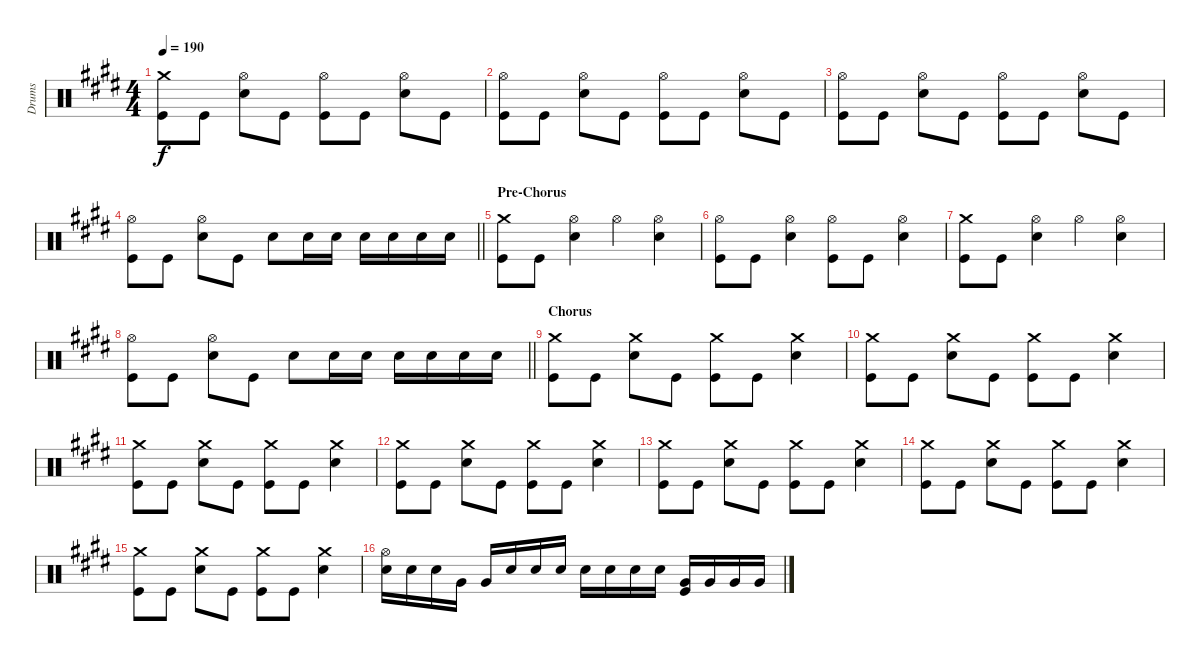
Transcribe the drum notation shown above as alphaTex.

\track ("Drums" "Drums") {instrument percussion}
\staff {score}
\articulation defaults
\ts (4 4)
\tempo 190
\clef neutral
\ks e
("Kick (hit)" "Crash medium (hit)").8{dy f} "Kick (hit)".8 ("Snare (hit) 2" "Hi-Hat (open)").8 "Kick (hit)".8 ("Kick (hit)" "Hi-Hat (open)").8 "Kick (hit)".8 ("Snare (hit) 2" "Hi-Hat (open)").8 "Kick (hit)".8 |
("Kick (hit)" "Hi-Hat (open)").8 "Kick (hit)".8 ("Snare (hit) 2" "Hi-Hat (open)").8 "Kick (hit)".8 ("Kick (hit)" "Hi-Hat (open)").8 "Kick (hit)".8 ("Snare (hit) 2" "Hi-Hat (open)").8 "Kick (hit)".8 |
("Kick (hit)" "Hi-Hat (open)").8 "Kick (hit)".8 ("Snare (hit) 2" "Hi-Hat (open)").8 "Kick (hit)".8 ("Kick (hit)" "Hi-Hat (open)").8 "Kick (hit)".8 ("Snare (hit) 2" "Hi-Hat (open)").8 "Kick (hit)".8 |
\barLineRight lightlight
("Kick (hit)" "Hi-Hat (open)").8 "Kick (hit)".8 ("Snare (hit) 2" "Hi-Hat (open)").8 "Kick (hit)".8 "Snare (hit) 2".8 "Snare (hit) 2".16 "Snare (hit) 2".16 "Snare (hit) 2".16 "Snare (hit) 2".16 "Snare (hit) 2".16 "Snare (hit) 2".16 |
\section ("" "Pre-Chorus")
("Kick (hit)" "Crash medium (hit)").8 "Kick (hit)".8 ("Snare (hit) 2" "Hi-Hat (open)").4 "Hi-Hat (open)".4 ("Snare (hit) 2" "Hi-Hat (open)").4 |
("Kick (hit)" "Hi-Hat (open)").8 "Kick (hit)".8 ("Snare (hit) 2" "Hi-Hat (open)").4 ("Kick (hit)" "Hi-Hat (open)").8 "Kick (hit)".8 ("Snare (hit) 2" "Hi-Hat (open)").4 |
("Kick (hit)" "Crash medium (hit)").8 "Kick (hit)".8 ("Snare (hit) 2" "Hi-Hat (open)").4 "Hi-Hat (open)".4 ("Snare (hit) 2" "Hi-Hat (open)").4 |
\barLineRight lightlight
("Kick (hit)" "Hi-Hat (open)").8 "Kick (hit)".8 ("Snare (hit) 2" "Hi-Hat (open)").8 "Kick (hit)".8 "Snare (hit) 2".8 "Snare (hit) 2".16 "Snare (hit) 2".16 "Snare (hit) 2".16 "Snare (hit) 2".16 "Snare (hit) 2".16 "Snare (hit) 2".16 |
\section ("" "Chorus")
("Kick (hit)" "Crash medium (hit)").8 "Kick (hit)".8 ("Snare (hit) 2" "Crash medium (hit)").8 "Kick (hit)".8 ("Kick (hit)" "Crash medium (hit)").8 "Kick (hit)".8 ("Snare (hit) 2" "Crash medium (hit)").4 |
("Kick (hit)" "Crash medium (hit)").8 "Kick (hit)".8 ("Snare (hit) 2" "Crash medium (hit)").8 "Kick (hit)".8 ("Kick (hit)" "Crash medium (hit)").8 "Kick (hit)".8 ("Snare (hit) 2" "Crash medium (hit)").4 |
("Kick (hit)" "Crash medium (hit)").8 "Kick (hit)".8 ("Snare (hit) 2" "Crash medium (hit)").8 "Kick (hit)".8 ("Kick (hit)" "Crash medium (hit)").8 "Kick (hit)".8 ("Snare (hit) 2" "Crash medium (hit)").4 |
("Kick (hit)" "Crash medium (hit)").8 "Kick (hit)".8 ("Snare (hit) 2" "Crash medium (hit)").8 "Kick (hit)".8 ("Kick (hit)" "Crash medium (hit)").8 "Kick (hit)".8 ("Snare (hit) 2" "Crash medium (hit)").4 |
("Kick (hit)" "Crash medium (hit)").8 "Kick (hit)".8 ("Snare (hit) 2" "Crash medium (hit)").8 "Kick (hit)".8 ("Kick (hit)" "Crash medium (hit)").8 "Kick (hit)".8 ("Snare (hit) 2" "Crash medium (hit)").4 |
("Kick (hit)" "Crash medium (hit)").8 "Kick (hit)".8 ("Snare (hit) 2" "Crash medium (hit)").8 "Kick (hit)".8 ("Kick (hit)" "Crash medium (hit)").8 "Kick (hit)".8 ("Snare (hit) 2" "Crash medium (hit)").4 |
("Kick (hit)" "Crash medium (hit)").8 "Kick (hit)".8 ("Snare (hit) 2" "Crash medium (hit)").8 "Kick (hit)".8 ("Kick (hit)" "Crash medium (hit)").8 "Kick (hit)".8 ("Snare (hit) 2" "Crash medium (hit)").4 |
("Snare (hit) 2" "Hi-Hat (open)").16 "Snare (hit) 2".16 "Snare (hit) 2".16 "Very Low Tom (hit)".16 "Very Low Tom (hit)".16 "Snare (hit) 2".16 "Snare (hit) 2".16 "Snare (hit) 2".16 "Snare (hit) 2".16 "Snare (hit) 2".16 "Snare (hit) 2".16 "Snare (hit) 2".16 ("Very Low Tom (hit)" "Kick (hit)").16 "Very Low Tom (hit)".16 "Very Low Tom (hit)".16 "Very Low Tom (hit)".16
